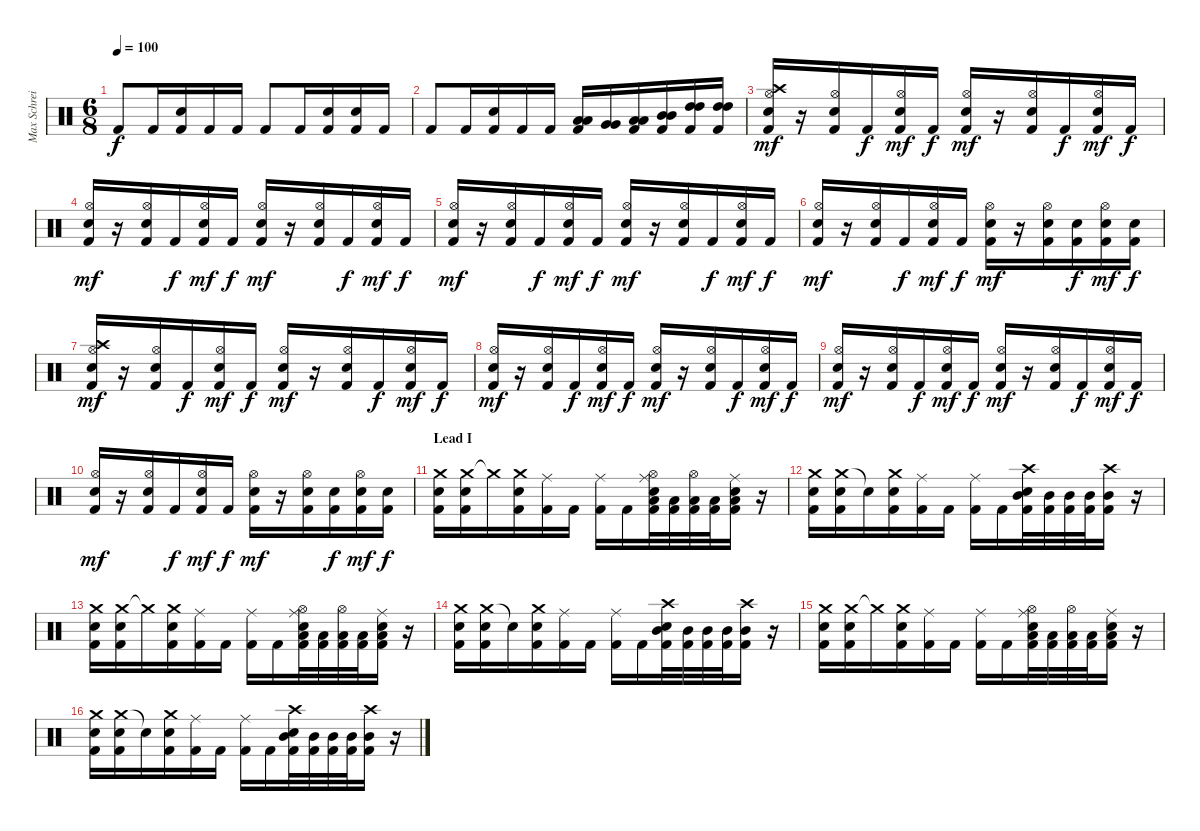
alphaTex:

\track ("Max Schreiber " "Max Schrei") {instrument percussion}
\staff {score}
\articulation defaults
\ts (6 8)
\tempo 100
\clef neutral
\ks c "Kick (hit) 2".8{dy f} "Kick (hit) 2".16
("Electric Snare (hit)" "Kick (hit) 2").16 "Kick (hit) 2".16 "Kick (hit) 2".16 "Kick (hit) 2".8 "Kick (hit) 2".16 ("Electric Snare (hit)" "Kick (hit) 2").16 ("Electric Snare (hit)" "Kick (hit) 2").16 "Kick (hit) 2".16 |
"Kick (hit) 2".8 "Kick (hit) 2".16 ("Electric Snare (hit)" "Kick (hit) 2").16 "Kick (hit) 2".16 "Kick (hit) 2".16 ("Low Floor Tom (hit)" "Low Floor Tom (hit)" "Kick (hit) 2").16 ("Very Low Tom (hit)" "Very Low Tom (hit)").16 ("Low Tom (hit)" "Low Tom (hit)" "Kick (hit) 2").16 ("Mid Tom (hit)" "Mid Tom (hit)" "Kick (hit) 2").16 ("High Tom (hit)" "High Tom (hit)" "Kick (hit) 2").16 ("High Tom (hit)" "High Tom (hit)" "Kick (hit) 2").16 |
("Hi-Hat (open)" "Crash high (hit)" "Snare (hit) 2" "Kick (hit) 2").16{dy mf} r.16 ("Hi-Hat (open)" "Snare (hit) 2" "Kick (hit) 2").16 "Kick (hit) 2".16{dy f} ("Hi-Hat (open)" "Snare (hit) 2" "Kick (hit) 2").16{dy mf} "Kick (hit) 2".16{dy f} ("Hi-Hat (open)" "Snare (hit) 2" "Kick (hit) 2").16{dy mf} r.16 ("Hi-Hat (open)" "Snare (hit) 2" "Kick (hit) 2").16 "Kick (hit) 2".16{dy f} ("Hi-Hat (open)" "Snare (hit) 2" "Kick (hit) 2").16{dy mf} "Kick (hit) 2".16{dy f} |
("Hi-Hat (open)" "Snare (hit) 2" "Kick (hit) 2").16{dy mf} r.16 ("Hi-Hat (open)" "Snare (hit) 2" "Kick (hit) 2").16 "Kick (hit) 2".16{dy f} ("Hi-Hat (open)" "Snare (hit) 2" "Kick (hit) 2").16{dy mf} "Kick (hit) 2".16{dy f} ("Hi-Hat (open)" "Snare (hit) 2" "Kick (hit) 2").16{dy mf} r.16 ("Hi-Hat (open)" "Snare (hit) 2" "Kick (hit) 2").16 "Kick (hit) 2".16{dy f} ("Hi-Hat (open)" "Snare (hit) 2" "Kick (hit) 2").16{dy mf} "Kick (hit) 2".16{dy f} |
("Hi-Hat (open)" "Snare (hit) 2" "Kick (hit) 2").16{dy mf} r.16 ("Hi-Hat (open)" "Snare (hit) 2" "Kick (hit) 2").16 "Kick (hit) 2".16{dy f} ("Hi-Hat (open)" "Snare (hit) 2" "Kick (hit) 2").16{dy mf} "Kick (hit) 2".16{dy f} ("Hi-Hat (open)" "Snare (hit) 2" "Kick (hit) 2").16{dy mf} r.16 ("Hi-Hat (open)" "Snare (hit) 2" "Kick (hit) 2").16 "Kick (hit) 2".16{dy f} ("Hi-Hat (open)" "Snare (hit) 2" "Kick (hit) 2").16{dy mf} "Kick (hit) 2".16{dy f} |
("Hi-Hat (open)" "Snare (hit) 2" "Kick (hit) 2").16{dy mf} r.16 ("Hi-Hat (open)" "Snare (hit) 2" "Kick (hit) 2").16 "Kick (hit) 2".16{dy f} ("Hi-Hat (open)" "Snare (hit) 2" "Kick (hit) 2").16{dy mf} "Kick (hit) 2".16{dy f} ("Hi-Hat (open)" "Snare (hit) 2" "Kick (hit) 2").16{dy mf} r.16 ("Hi-Hat (open)" "Electric Snare (hit)" "Kick (hit) 2").16 ("Electric Snare (hit)" "Kick (hit) 2").16{dy f} ("Hi-Hat (open)" "Electric Snare (hit)" "Kick (hit) 2").16{dy mf} ("Electric Snare (hit)" "Kick (hit) 2").16{dy f} |
("Hi-Hat (open)" "Crash high (hit)" "Snare (hit) 2" "Kick (hit) 2").16{dy mf} r.16 ("Hi-Hat (open)" "Snare (hit) 2" "Kick (hit) 2").16 "Kick (hit) 2".16{dy f} ("Hi-Hat (open)" "Snare (hit) 2" "Kick (hit) 2").16{dy mf} "Kick (hit) 2".16{dy f} ("Hi-Hat (open)" "Snare (hit) 2" "Kick (hit) 2").16{dy mf} r.16 ("Hi-Hat (open)" "Snare (hit) 2" "Kick (hit) 2").16 "Kick (hit) 2".16{dy f} ("Hi-Hat (open)" "Snare (hit) 2" "Kick (hit) 2").16{dy mf} "Kick (hit) 2".16{dy f} |
("Hi-Hat (open)" "Snare (hit) 2" "Kick (hit) 2").16{dy mf} r.16 ("Hi-Hat (open)" "Snare (hit) 2" "Kick (hit) 2").16 "Kick (hit) 2".16{dy f} ("Hi-Hat (open)" "Snare (hit) 2" "Kick (hit) 2").16{dy mf} "Kick (hit) 2".16{dy f} ("Hi-Hat (open)" "Snare (hit) 2" "Kick (hit) 2").16{dy mf} r.16 ("Hi-Hat (open)" "Snare (hit) 2" "Kick (hit) 2").16 "Kick (hit) 2".16{dy f} ("Hi-Hat (open)" "Snare (hit) 2" "Kick (hit) 2").16{dy mf} "Kick (hit) 2".16{dy f} |
("Hi-Hat (open)" "Snare (hit) 2" "Kick (hit) 2").16{dy mf} r.16 ("Hi-Hat (open)" "Snare (hit) 2" "Kick (hit) 2").16 "Kick (hit) 2".16{dy f} ("Hi-Hat (open)" "Snare (hit) 2" "Kick (hit) 2").16{dy mf} "Kick (hit) 2".16{dy f} ("Hi-Hat (open)" "Snare (hit) 2" "Kick (hit) 2").16{dy mf} r.16 ("Hi-Hat (open)" "Snare (hit) 2" "Kick (hit) 2").16 "Kick (hit) 2".16{dy f} ("Hi-Hat (open)" "Snare (hit) 2" "Kick (hit) 2").16{dy mf} "Kick (hit) 2".16{dy f} |
("Hi-Hat (open)" "Snare (hit) 2" "Kick (hit) 2").16{dy mf} r.16 ("Hi-Hat (open)" "Snare (hit) 2" "Kick (hit) 2").16 "Kick (hit) 2".16{dy f} ("Hi-Hat (open)" "Snare (hit) 2" "Kick (hit) 2").16{dy mf} "Kick (hit) 2".16{dy f} ("Hi-Hat (open)" "Snare (hit) 2" "Kick (hit) 2").16{dy mf} r.16 ("Hi-Hat (open)" "Electric Snare (hit)" "Kick (hit) 2").16 ("Electric Snare (hit)" "Kick (hit) 2").16{dy f} ("Hi-Hat (open)" "Electric Snare (hit)" "Kick (hit) 2").16{dy mf} ("Electric Snare (hit)" "Kick (hit) 2").16{dy f} |
\section ("" "Lead I")
("Crash medium (hit)" "Snare (hit) 2" "Kick (hit) 2").16 ("Crash medium (hit)" "Snare (hit) 2" "Kick (hit) 2").16 "Crash medium (hit)"{t}.16 ("Crash medium (hit)" "Snare (hit) 2" "Kick (hit) 2").16 ("Ride (middle)" "Kick (hit) 2").16 "Kick (hit) 2".16 ("Ride (middle)" "Kick (hit) 2").16 "Kick (hit) 2".16 ("Ride (middle)" "Hi-Hat (open)" "Electric Snare (hit)" "Low Floor Tom (hit)" "Kick (hit) 2").32 ("Low Floor Tom (hit)" "Kick (hit) 2").32 ("Hi-Hat (open)" "Low Floor Tom (hit)" "Kick (hit) 2").32 ("Low Floor Tom (hit)" "Kick (hit) 2").32 ("Ride (middle)" "Electric Snare (hit)" "Low Floor Tom (hit)" "Kick (hit) 2").16 r.16 |
("Crash medium (hit)" "Snare (hit) 2" "Kick (hit) 2").16 ("Crash medium (hit)" "Snare (hit) 2" "Kick (hit) 2").16 "Snare (hit)"{t}.16 ("Crash medium (hit)" "Snare (hit) 2" "Kick (hit) 2").16 ("Ride (middle)" "Kick (hit) 2").16 "Kick (hit) 2".16 ("Ride (middle)" "Kick (hit) 2").16 "Kick (hit) 2".16 ("Crash high (hit)" "Electric Snare (hit)" "Mid Tom (hit)" "Kick (hit) 2").32 ("Mid Tom (hit)" "Kick (hit) 2").32 ("Mid Tom (hit)" "Kick (hit) 2").32 ("Mid Tom (hit)" "Kick (hit) 2").32 ("Crash high (hit)" "Mid Tom (hit)" "Kick (hit) 2").16 r.16 |
("Crash medium (hit)" "Snare (hit) 2" "Kick (hit) 2").16 ("Crash medium (hit)" "Snare (hit) 2" "Kick (hit) 2").16 "Crash medium (hit)"{t}.16 ("Crash medium (hit)" "Snare (hit) 2" "Kick (hit) 2").16 ("Ride (middle)" "Kick (hit) 2").16 "Kick (hit) 2".16 ("Ride (middle)" "Kick (hit) 2").16 "Kick (hit) 2".16 ("Ride (middle)" "Hi-Hat (open)" "Electric Snare (hit)" "Low Floor Tom (hit)" "Kick (hit) 2").32 ("Low Floor Tom (hit)" "Kick (hit) 2").32 ("Hi-Hat (open)" "Low Floor Tom (hit)" "Kick (hit) 2").32 ("Low Floor Tom (hit)" "Kick (hit) 2").32 ("Ride (middle)" "Electric Snare (hit)" "Low Floor Tom (hit)" "Kick (hit) 2").16 r.16 |
("Crash medium (hit)" "Snare (hit) 2" "Kick (hit) 2").16 ("Crash medium (hit)" "Snare (hit) 2" "Kick (hit) 2").16 "Snare (hit)"{t}.16 ("Crash medium (hit)" "Snare (hit) 2" "Kick (hit) 2").16 ("Ride (middle)" "Kick (hit) 2").16 "Kick (hit) 2".16 ("Ride (middle)" "Kick (hit) 2").16 "Kick (hit) 2".16 ("Crash high (hit)" "Electric Snare (hit)" "Mid Tom (hit)" "Kick (hit) 2").32 ("Mid Tom (hit)" "Kick (hit) 2").32 ("Mid Tom (hit)" "Kick (hit) 2").32 ("Mid Tom (hit)" "Kick (hit) 2").32 ("Crash high (hit)" "Mid Tom (hit)" "Kick (hit) 2").16 r.16 |
("Crash medium (hit)" "Snare (hit) 2" "Kick (hit) 2").16 ("Crash medium (hit)" "Snare (hit) 2" "Kick (hit) 2").16 "Crash medium (hit)"{t}.16 ("Crash medium (hit)" "Snare (hit) 2" "Kick (hit) 2").16 ("Ride (middle)" "Kick (hit) 2").16 "Kick (hit) 2".16 ("Ride (middle)" "Kick (hit) 2").16 "Kick (hit) 2".16 ("Ride (middle)" "Hi-Hat (open)" "Electric Snare (hit)" "Low Floor Tom (hit)" "Kick (hit) 2").32 ("Low Floor Tom (hit)" "Kick (hit) 2").32 ("Hi-Hat (open)" "Low Floor Tom (hit)" "Kick (hit) 2").32 ("Low Floor Tom (hit)" "Kick (hit) 2").32 ("Ride (middle)" "Electric Snare (hit)" "Low Floor Tom (hit)" "Kick (hit) 2").16 r.16 |
("Crash medium (hit)" "Snare (hit) 2" "Kick (hit) 2").16 ("Crash medium (hit)" "Snare (hit) 2" "Kick (hit) 2").16 "Snare (hit)"{t}.16 ("Crash medium (hit)" "Snare (hit) 2" "Kick (hit) 2").16 ("Ride (middle)" "Kick (hit) 2").16 "Kick (hit) 2".16 ("Ride (middle)" "Kick (hit) 2").16 "Kick (hit) 2".16 ("Crash high (hit)" "Electric Snare (hit)" "Mid Tom (hit)" "Kick (hit) 2").32 ("Mid Tom (hit)" "Kick (hit) 2").32 ("Mid Tom (hit)" "Kick (hit) 2").32 ("Mid Tom (hit)" "Kick (hit) 2").32 ("Crash high (hit)" "Mid Tom (hit)" "Kick (hit) 2").16 r.16
